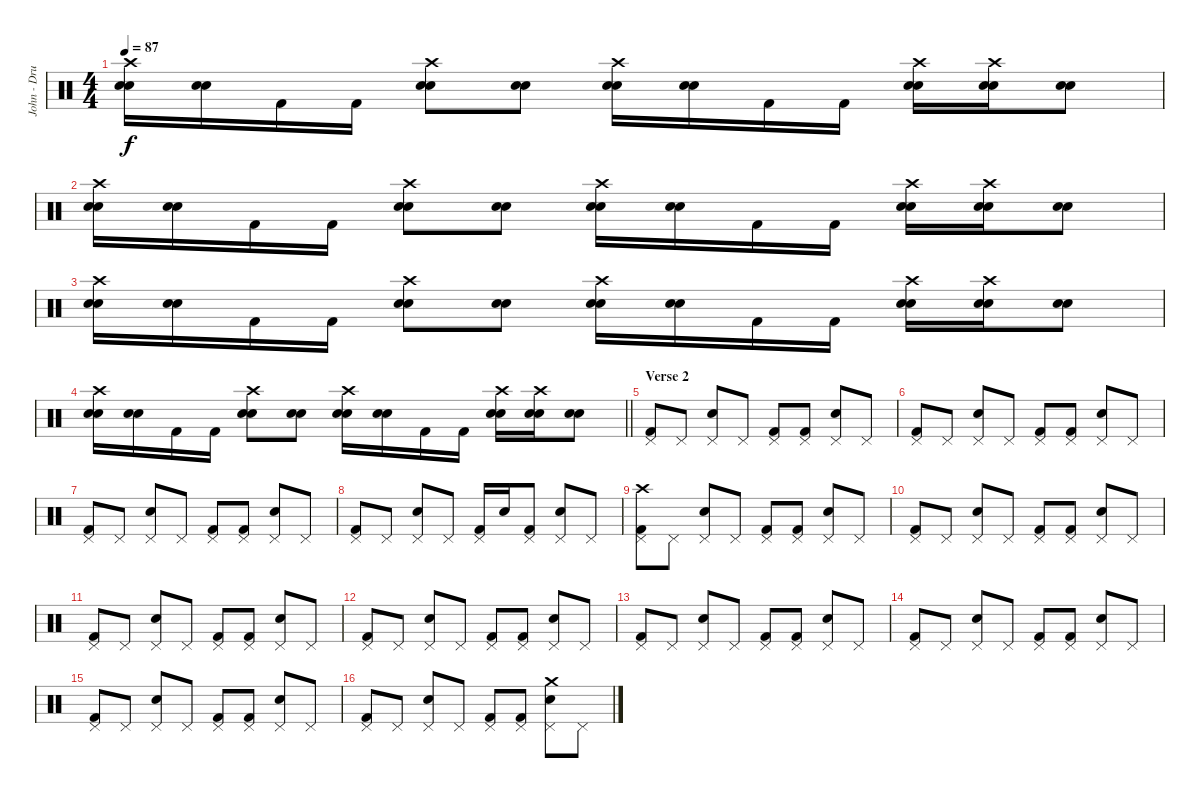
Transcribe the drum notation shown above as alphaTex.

\track ("John - Drum" "John - Dru") {instrument percussion}
\staff {score}
\articulation defaults
\ts (4 4)
\tempo 87
\clef neutral
\ks c
("Crash high (hit)" "Snare (hit) 2" "Electric Snare (hit)").16{dy f} ("Snare (hit) 2" "Electric Snare (hit)").16 "Kick (hit) 2".16 "Kick (hit) 2".16 ("Crash high (hit)" "Snare (hit) 2" "Electric Snare (hit)").8 ("Snare (hit) 2" "Electric Snare (hit)").8 ("Crash high (hit)" "Snare (hit) 2" "Electric Snare (hit)").16 ("Snare (hit) 2" "Electric Snare (hit)").16 "Kick (hit) 2".16 "Kick (hit) 2".16 ("Crash high (hit)" "Snare (hit) 2" "Electric Snare (hit)").16 ("Crash high (hit)" "Snare (hit) 2" "Electric Snare (hit)").16 ("Snare (hit) 2" "Electric Snare (hit)").8 |
("Crash high (hit)" "Snare (hit) 2" "Electric Snare (hit)").16 ("Snare (hit) 2" "Electric Snare (hit)").16 "Kick (hit) 2".16 "Kick (hit) 2".16 ("Crash high (hit)" "Snare (hit) 2" "Electric Snare (hit)").8 ("Snare (hit) 2" "Electric Snare (hit)").8 ("Crash high (hit)" "Snare (hit) 2" "Electric Snare (hit)").16 ("Snare (hit) 2" "Electric Snare (hit)").16 "Kick (hit) 2".16 "Kick (hit) 2".16 ("Crash high (hit)" "Snare (hit) 2" "Electric Snare (hit)").16 ("Crash high (hit)" "Snare (hit) 2" "Electric Snare (hit)").16 ("Snare (hit) 2" "Electric Snare (hit)").8 |
("Crash high (hit)" "Snare (hit) 2" "Electric Snare (hit)").16 ("Snare (hit) 2" "Electric Snare (hit)").16 "Kick (hit) 2".16 "Kick (hit) 2".16 ("Crash high (hit)" "Snare (hit) 2" "Electric Snare (hit)").8 ("Snare (hit) 2" "Electric Snare (hit)").8 ("Crash high (hit)" "Snare (hit) 2" "Electric Snare (hit)").16 ("Snare (hit) 2" "Electric Snare (hit)").16 "Kick (hit) 2".16 "Kick (hit) 2".16 ("Crash high (hit)" "Snare (hit) 2" "Electric Snare (hit)").16 ("Crash high (hit)" "Snare (hit) 2" "Electric Snare (hit)").16 ("Snare (hit) 2" "Electric Snare (hit)").8 |
\barLineRight lightlight
("Crash high (hit)" "Snare (hit) 2" "Electric Snare (hit)").16 ("Snare (hit) 2" "Electric Snare (hit)").16 "Kick (hit) 2".16 "Kick (hit) 2".16 ("Crash high (hit)" "Snare (hit) 2" "Electric Snare (hit)").8 ("Snare (hit) 2" "Electric Snare (hit)").8 ("Crash high (hit)" "Snare (hit) 2" "Electric Snare (hit)").16 ("Snare (hit) 2" "Electric Snare (hit)").16 "Kick (hit) 2".16 "Kick (hit) 2".16 ("Crash high (hit)" "Snare (hit) 2" "Electric Snare (hit)").16 ("Crash high (hit)" "Snare (hit) 2" "Electric Snare (hit)").16 ("Snare (hit) 2" "Electric Snare (hit)").8 |
\section ("" "Verse 2")
("Kick (hit) 2" "Pedal Hi-Hat (hit)").8 "Pedal Hi-Hat (hit)".8 ("Electric Snare (hit)" "Pedal Hi-Hat (hit)").8 "Pedal Hi-Hat (hit)".8 ("Kick (hit) 2" "Pedal Hi-Hat (hit)").8 ("Kick (hit) 2" "Pedal Hi-Hat (hit)").8 ("Electric Snare (hit)" "Pedal Hi-Hat (hit)").8 "Pedal Hi-Hat (hit)".8 |
("Kick (hit) 2" "Pedal Hi-Hat (hit)").8 "Pedal Hi-Hat (hit)".8 ("Electric Snare (hit)" "Pedal Hi-Hat (hit)").8 "Pedal Hi-Hat (hit)".8 ("Kick (hit) 2" "Pedal Hi-Hat (hit)").8 ("Kick (hit) 2" "Pedal Hi-Hat (hit)").8 ("Electric Snare (hit)" "Pedal Hi-Hat (hit)").8 "Pedal Hi-Hat (hit)".8 |
("Kick (hit) 2" "Pedal Hi-Hat (hit)").8 "Pedal Hi-Hat (hit)".8 ("Electric Snare (hit)" "Pedal Hi-Hat (hit)").8 "Pedal Hi-Hat (hit)".8 ("Kick (hit) 2" "Pedal Hi-Hat (hit)").8 ("Kick (hit) 2" "Pedal Hi-Hat (hit)").8 ("Electric Snare (hit)" "Pedal Hi-Hat (hit)").8 "Pedal Hi-Hat (hit)".8 |
("Kick (hit) 2" "Pedal Hi-Hat (hit)").8 "Pedal Hi-Hat (hit)".8 ("Electric Snare (hit)" "Pedal Hi-Hat (hit)").8 "Pedal Hi-Hat (hit)".8 ("Kick (hit) 2" "Pedal Hi-Hat (hit)").16 "Electric Snare (hit)".16 ("Kick (hit) 2" "Pedal Hi-Hat (hit)").8 ("Electric Snare (hit)" "Pedal Hi-Hat (hit)").8 "Pedal Hi-Hat (hit)".8 |
("Crash high (hit)" "Kick (hit) 2" "Pedal Hi-Hat (hit)").8 "Pedal Hi-Hat (hit)".8 ("Electric Snare (hit)" "Pedal Hi-Hat (hit)").8 "Pedal Hi-Hat (hit)".8 ("Kick (hit) 2" "Pedal Hi-Hat (hit)").8 ("Kick (hit) 2" "Pedal Hi-Hat (hit)").8 ("Electric Snare (hit)" "Pedal Hi-Hat (hit)").8 "Pedal Hi-Hat (hit)".8 |
("Kick (hit) 2" "Pedal Hi-Hat (hit)").8 "Pedal Hi-Hat (hit)".8 ("Electric Snare (hit)" "Pedal Hi-Hat (hit)").8 "Pedal Hi-Hat (hit)".8 ("Kick (hit) 2" "Pedal Hi-Hat (hit)").8 ("Kick (hit) 2" "Pedal Hi-Hat (hit)").8 ("Electric Snare (hit)" "Pedal Hi-Hat (hit)").8 "Pedal Hi-Hat (hit)".8 |
("Kick (hit) 2" "Pedal Hi-Hat (hit)").8 "Pedal Hi-Hat (hit)".8 ("Electric Snare (hit)" "Pedal Hi-Hat (hit)").8 "Pedal Hi-Hat (hit)".8 ("Kick (hit) 2" "Pedal Hi-Hat (hit)").8 ("Kick (hit) 2" "Pedal Hi-Hat (hit)").8 ("Electric Snare (hit)" "Pedal Hi-Hat (hit)").8 "Pedal Hi-Hat (hit)".8 |
("Kick (hit) 2" "Pedal Hi-Hat (hit)").8 "Pedal Hi-Hat (hit)".8 ("Electric Snare (hit)" "Pedal Hi-Hat (hit)").8 "Pedal Hi-Hat (hit)".8 ("Kick (hit) 2" "Pedal Hi-Hat (hit)").8 ("Kick (hit) 2" "Pedal Hi-Hat (hit)").8 ("Electric Snare (hit)" "Pedal Hi-Hat (hit)").8 "Pedal Hi-Hat (hit)".8 |
("Kick (hit) 2" "Pedal Hi-Hat (hit)").8 "Pedal Hi-Hat (hit)".8 ("Electric Snare (hit)" "Pedal Hi-Hat (hit)").8 "Pedal Hi-Hat (hit)".8 ("Kick (hit) 2" "Pedal Hi-Hat (hit)").8 ("Kick (hit) 2" "Pedal Hi-Hat (hit)").8 ("Electric Snare (hit)" "Pedal Hi-Hat (hit)").8 "Pedal Hi-Hat (hit)".8 |
("Kick (hit) 2" "Pedal Hi-Hat (hit)").8 "Pedal Hi-Hat (hit)".8 ("Electric Snare (hit)" "Pedal Hi-Hat (hit)").8 "Pedal Hi-Hat (hit)".8 ("Kick (hit) 2" "Pedal Hi-Hat (hit)").8 ("Kick (hit) 2" "Pedal Hi-Hat (hit)").8 ("Electric Snare (hit)" "Pedal Hi-Hat (hit)").8 "Pedal Hi-Hat (hit)".8 |
("Kick (hit) 2" "Pedal Hi-Hat (hit)").8 "Pedal Hi-Hat (hit)".8 ("Electric Snare (hit)" "Pedal Hi-Hat (hit)").8 "Pedal Hi-Hat (hit)".8 ("Kick (hit) 2" "Pedal Hi-Hat (hit)").8 ("Kick (hit) 2" "Pedal Hi-Hat (hit)").8 ("Electric Snare (hit)" "Pedal Hi-Hat (hit)").8 "Pedal Hi-Hat (hit)".8 |
("Kick (hit) 2" "Pedal Hi-Hat (hit)").8 "Pedal Hi-Hat (hit)".8 ("Electric Snare (hit)" "Pedal Hi-Hat (hit)").8 "Pedal Hi-Hat (hit)".8 ("Kick (hit) 2" "Pedal Hi-Hat (hit)").8 ("Kick (hit) 2" "Pedal Hi-Hat (hit)").8 ("Crash medium (hit)" "Electric Snare (hit)" "Pedal Hi-Hat (hit)").8 "Pedal Hi-Hat (hit)".8
